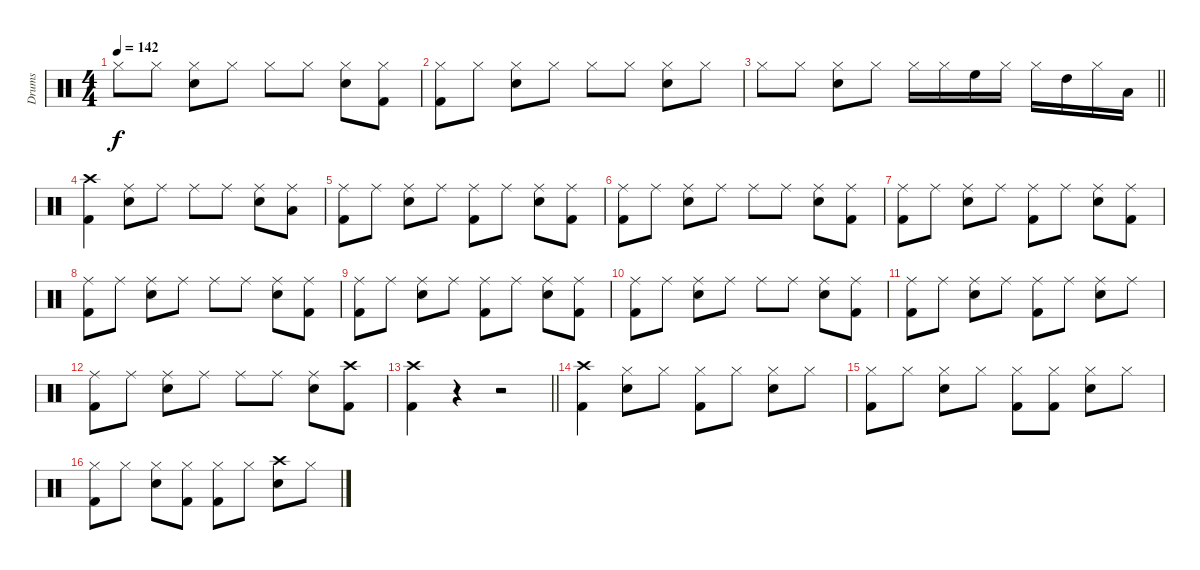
\track ("Drums" "Drums") {instrument percussion}
\staff {score}
\articulation defaults
\ts (4 4)
\tempo 142
\clef neutral
\ks c "Hi-Hat (closed)".8{dy f} "Hi-Hat (closed)".8
("Hi-Hat (closed)" "Snare (hit) 2").8 "Hi-Hat (closed)".8 "Hi-Hat (closed)".8 "Hi-Hat (closed)".8 ("Hi-Hat (closed)" "Snare (hit) 2").8 ("Hi-Hat (closed)" "Kick (hit) 2").8 |
("Hi-Hat (closed)" "Kick (hit) 2").8 "Hi-Hat (closed)".8 ("Hi-Hat (closed)" "Snare (hit) 2").8 "Hi-Hat (closed)".8 "Hi-Hat (closed)".8 "Hi-Hat (closed)".8 ("Hi-Hat (closed)" "Snare (hit) 2").8 "Hi-Hat (closed)".8 |
\barLineRight lightlight "Hi-Hat (closed)".8 "Hi-Hat (closed)".8
("Hi-Hat (closed)" "Snare (hit) 2").8 "Hi-Hat (closed)".8 "Hi-Hat (closed)".16 "Hi-Hat (closed)".16 "High Floor Tom (hit)".16 "Hi-Hat (closed)".16 "Hi-Hat (closed)".16 "High Tom (hit)".16 "Hi-Hat (closed)".16 "Low Tom (hit)".16 |
("Crash high (hit)" "Kick (hit) 2").4 ("Ride (middle)" "Snare (hit) 2").8 "Ride (middle)".8 "Ride (middle)".8 "Ride (middle)".8 ("Ride (middle)" "Snare (hit) 2").8 ("Ride (middle)" "Low Tom (hit)").8 |
("Ride (middle)" "Kick (hit) 2").8 "Ride (middle)".8 ("Ride (middle)" "Snare (hit) 2").8 "Ride (middle)".8 ("Ride (middle)" "Kick (hit) 2").8 "Ride (middle)".8 ("Ride (middle)" "Snare (hit) 2").8 ("Ride (middle)" "Kick (hit) 2").8 |
("Ride (middle)" "Kick (hit) 2").8 "Ride (middle)".8 ("Ride (middle)" "Snare (hit) 2").8 "Ride (middle)".8 "Ride (middle)".8 "Ride (middle)".8 ("Ride (middle)" "Snare (hit) 2").8 ("Ride (middle)" "Kick (hit) 2").8 |
("Ride (middle)" "Kick (hit) 2").8 "Ride (middle)".8 ("Ride (middle)" "Snare (hit) 2").8 "Ride (middle)".8 ("Ride (middle)" "Kick (hit) 2").8 "Ride (middle)".8 ("Ride (middle)" "Snare (hit) 2").8 ("Ride (middle)" "Kick (hit) 2").8 |
("Ride (middle)" "Kick (hit) 2").8 "Ride (middle)".8 ("Ride (middle)" "Snare (hit) 2").8 "Ride (middle)".8 "Ride (middle)".8 "Ride (middle)".8 ("Ride (middle)" "Snare (hit) 2").8 ("Ride (middle)" "Kick (hit) 2").8 |
("Ride (middle)" "Kick (hit) 2").8 "Ride (middle)".8 ("Ride (middle)" "Snare (hit) 2").8 "Ride (middle)".8 ("Ride (middle)" "Kick (hit) 2").8 "Ride (middle)".8 ("Ride (middle)" "Snare (hit) 2").8 ("Ride (middle)" "Kick (hit) 2").8 |
("Ride (middle)" "Kick (hit) 2").8 "Ride (middle)".8 ("Ride (middle)" "Snare (hit) 2").8 "Ride (middle)".8 "Ride (middle)".8 "Ride (middle)".8 ("Ride (middle)" "Snare (hit) 2").8 ("Ride (middle)" "Kick (hit) 2").8 |
("Ride (middle)" "Kick (hit) 2").8 "Ride (middle)".8 ("Ride (middle)" "Snare (hit) 2").8 "Ride (middle)".8 ("Ride (middle)" "Kick (hit) 2").8 "Ride (middle)".8 ("Ride (middle)" "Snare (hit) 2").8 "Ride (middle)".8 |
("Ride (middle)" "Kick (hit) 2").8 "Ride (middle)".8 ("Ride (middle)" "Snare (hit) 2").8 "Ride (middle)".8 "Ride (middle)".8 "Ride (middle)".8 ("Ride (middle)" "Snare (hit) 2").8 ("Crash high (hit)" "Kick (hit) 2").8 |
\barLineRight lightlight
("Crash high (hit)" "Kick (hit) 2").4 r.4 r.2 |
("Crash high (hit)" "Kick (hit) 2").4 ("Hi-Hat (closed)" "Snare (hit) 2").8 "Hi-Hat (closed)".8 ("Hi-Hat (closed)" "Kick (hit) 2").8 "Hi-Hat (closed)".8 ("Hi-Hat (closed)" "Snare (hit) 2").8 "Hi-Hat (closed)".8 |
("Hi-Hat (closed)" "Kick (hit) 2").8 "Hi-Hat (closed)".8 ("Hi-Hat (closed)" "Snare (hit) 2").8 "Hi-Hat (closed)".8 ("Hi-Hat (closed)" "Kick (hit) 2").8 ("Hi-Hat (closed)" "Kick (hit) 2").8 ("Hi-Hat (closed)" "Snare (hit) 2").8 "Hi-Hat (closed)".8 |
("Hi-Hat (closed)" "Kick (hit) 2").8 "Hi-Hat (closed)".8 ("Hi-Hat (closed)" "Snare (hit) 2").8 ("Hi-Hat (closed)" "Kick (hit) 2").8 ("Hi-Hat (closed)" "Kick (hit) 2").8 "Hi-Hat (closed)".8 ("Crash high (hit)" "Snare (hit) 2").8 "Hi-Hat (closed)".8
